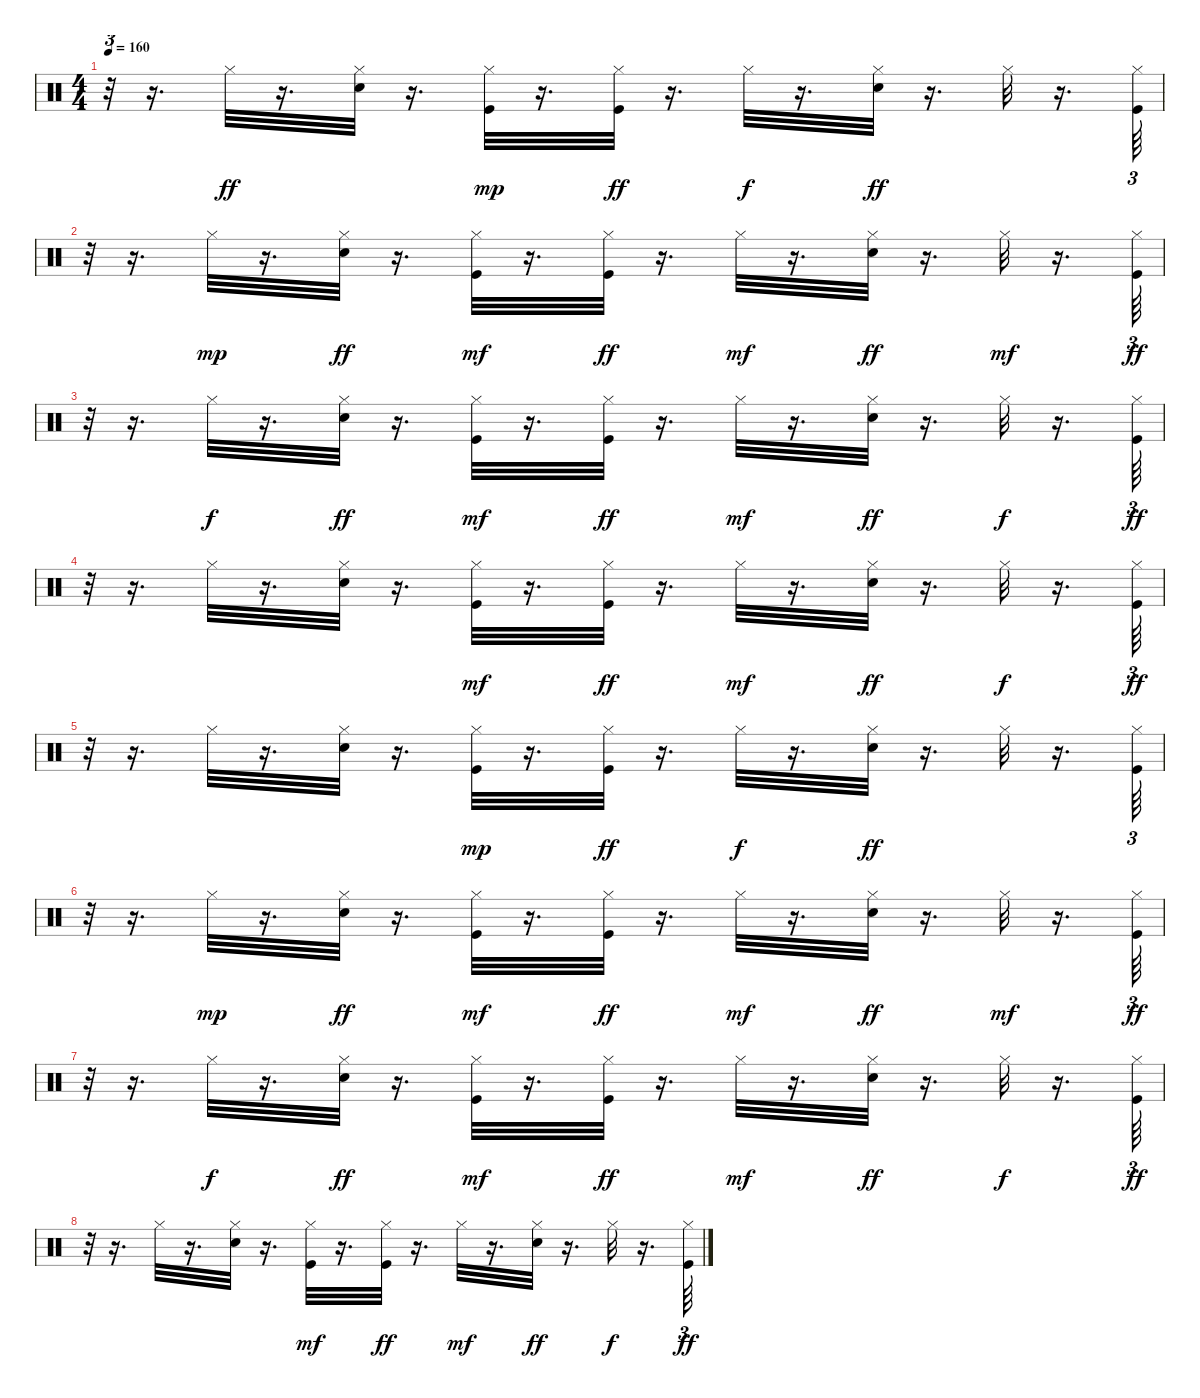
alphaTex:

\track "" {instrument percussion}
\staff {score}
\articulation defaults
\ts (4 4)
\tempo 160
\clef neutral
\ks c
r.32{tu (3 2) dy ff} r.16{d} "Hi-Hat (closed)".32 r.16{d} ("Hi-Hat (closed)" "Electric Snare (hit)").32 r.16{d} ("Kick (hit)" "Hi-Hat (closed)").32{dy mp} r.16{d} ("Kick (hit)" "Hi-Hat (closed)").32{dy ff} r.16{d} "Hi-Hat (closed)".32{dy f} r.16{d} ("Hi-Hat (closed)" "Electric Snare (hit)").32{dy ff} r.16{d} "Hi-Hat (closed)".32 r.16{d} ("Kick (hit)" "Hi-Hat (closed)").64{tu (3 2)} |
r.32{tu (3 2)} r.16{d} "Hi-Hat (closed)".32{dy mp} r.16{d} ("Hi-Hat (closed)" "Electric Snare (hit)").32{dy ff} r.16{d} ("Kick (hit)" "Hi-Hat (closed)").32{dy mf} r.16{d} ("Kick (hit)" "Hi-Hat (closed)").32{dy ff} r.16{d} "Hi-Hat (closed)".32{dy mf} r.16{d} ("Hi-Hat (closed)" "Electric Snare (hit)").32{dy ff} r.16{d} "Hi-Hat (closed)".32{dy mf} r.16{d} ("Kick (hit)" "Hi-Hat (closed)").64{tu (3 2) dy ff} |
r.32{tu (3 2)} r.16{d} "Hi-Hat (closed)".32{dy f} r.16{d} ("Hi-Hat (closed)" "Electric Snare (hit)").32{dy ff} r.16{d} ("Kick (hit)" "Hi-Hat (closed)").32{dy mf} r.16{d} ("Kick (hit)" "Hi-Hat (closed)").32{dy ff} r.16{d} "Hi-Hat (closed)".32{dy mf} r.16{d} ("Hi-Hat (closed)" "Electric Snare (hit)").32{dy ff} r.16{d} "Hi-Hat (closed)".32{dy f} r.16{d} ("Kick (hit)" "Hi-Hat (closed)").64{tu (3 2) dy ff} |
r.32{tu (3 2)} r.16{d} "Hi-Hat (closed)".32 r.16{d} ("Hi-Hat (closed)" "Electric Snare (hit)").32 r.16{d} ("Kick (hit)" "Hi-Hat (closed)").32{dy mf} r.16{d} ("Kick (hit)" "Hi-Hat (closed)").32{dy ff} r.16{d} "Hi-Hat (closed)".32{dy mf} r.16{d} ("Hi-Hat (closed)" "Electric Snare (hit)").32{dy ff} r.16{d} "Hi-Hat (closed)".32{dy f} r.16{d} ("Kick (hit)" "Hi-Hat (closed)").64{tu (3 2) dy ff} |
r.32{tu (3 2)} r.16{d} "Hi-Hat (closed)".32 r.16{d} ("Hi-Hat (closed)" "Electric Snare (hit)").32 r.16{d} ("Kick (hit)" "Hi-Hat (closed)").32{dy mp} r.16{d} ("Kick (hit)" "Hi-Hat (closed)").32{dy ff} r.16{d} "Hi-Hat (closed)".32{dy f} r.16{d} ("Hi-Hat (closed)" "Electric Snare (hit)").32{dy ff} r.16{d} "Hi-Hat (closed)".32 r.16{d} ("Kick (hit)" "Hi-Hat (closed)").64{tu (3 2)} |
r.32{tu (3 2)} r.16{d} "Hi-Hat (closed)".32{dy mp} r.16{d} ("Hi-Hat (closed)" "Electric Snare (hit)").32{dy ff} r.16{d} ("Kick (hit)" "Hi-Hat (closed)").32{dy mf} r.16{d} ("Kick (hit)" "Hi-Hat (closed)").32{dy ff} r.16{d} "Hi-Hat (closed)".32{dy mf} r.16{d} ("Hi-Hat (closed)" "Electric Snare (hit)").32{dy ff} r.16{d} "Hi-Hat (closed)".32{dy mf} r.16{d} ("Kick (hit)" "Hi-Hat (closed)").64{tu (3 2) dy ff} |
r.32{tu (3 2)} r.16{d} "Hi-Hat (closed)".32{dy f} r.16{d} ("Hi-Hat (closed)" "Electric Snare (hit)").32{dy ff} r.16{d} ("Kick (hit)" "Hi-Hat (closed)").32{dy mf} r.16{d} ("Kick (hit)" "Hi-Hat (closed)").32{dy ff} r.16{d} "Hi-Hat (closed)".32{dy mf} r.16{d} ("Hi-Hat (closed)" "Electric Snare (hit)").32{dy ff} r.16{d} "Hi-Hat (closed)".32{dy f} r.16{d} ("Kick (hit)" "Hi-Hat (closed)").64{tu (3 2) dy ff} |
r.32{tu (3 2)} r.16{d} "Hi-Hat (closed)".32 r.16{d} ("Hi-Hat (closed)" "Electric Snare (hit)").32 r.16{d} ("Kick (hit)" "Hi-Hat (closed)").32{dy mf} r.16{d} ("Kick (hit)" "Hi-Hat (closed)").32{dy ff} r.16{d} "Hi-Hat (closed)".32{dy mf} r.16{d} ("Hi-Hat (closed)" "Electric Snare (hit)").32{dy ff} r.16{d} "Hi-Hat (closed)".32{dy f} r.16{d} ("Kick (hit)" "Hi-Hat (closed)").64{tu (3 2) dy ff}
